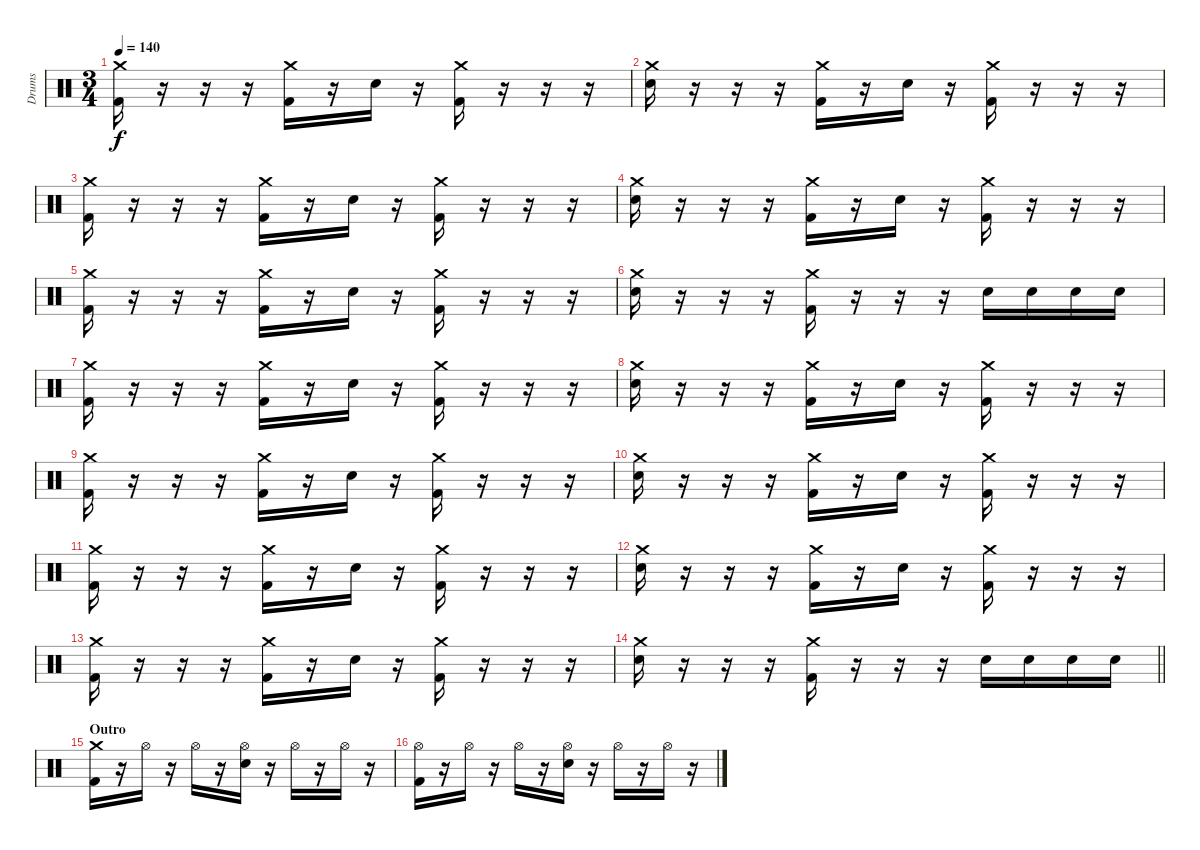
\track ("Drums" "Drums") {instrument percussion}
\staff {score}
\articulation defaults
\ts (3 4)
\tempo 140
\clef neutral
\ks c
("Crash medium (hit)" "Kick (hit) 2").16{dy f} r.16 r.16 r.16 ("Crash medium (hit)" "Kick (hit) 2").16 r.16 "Electric Snare (hit)".16 r.16 ("Crash medium (hit)" "Kick (hit) 2").16 r.16 r.16 r.16 |
("Crash medium (hit)" "Electric Snare (hit)").16 r.16 r.16 r.16 ("Crash medium (hit)" "Kick (hit) 2").16 r.16 "Electric Snare (hit)".16 r.16 ("Crash medium (hit)" "Kick (hit) 2").16 r.16 r.16 r.16 |
("Crash medium (hit)" "Kick (hit) 2").16 r.16 r.16 r.16 ("Crash medium (hit)" "Kick (hit) 2").16 r.16 "Electric Snare (hit)".16 r.16 ("Crash medium (hit)" "Kick (hit) 2").16 r.16 r.16 r.16 |
("Crash medium (hit)" "Electric Snare (hit)").16 r.16 r.16 r.16 ("Crash medium (hit)" "Kick (hit) 2").16 r.16 "Electric Snare (hit)".16 r.16 ("Crash medium (hit)" "Kick (hit) 2").16 r.16 r.16 r.16 |
("Crash medium (hit)" "Kick (hit) 2").16 r.16 r.16 r.16 ("Crash medium (hit)" "Kick (hit) 2").16 r.16 "Electric Snare (hit)".16 r.16 ("Crash medium (hit)" "Kick (hit) 2").16 r.16 r.16 r.16 |
("Crash medium (hit)" "Electric Snare (hit)").16 r.16 r.16 r.16 ("Crash medium (hit)" "Kick (hit) 2").16 r.16 r.16 r.16 "Electric Snare (hit)".16 "Electric Snare (hit)".16 "Electric Snare (hit)".16 "Electric Snare (hit)".16 |
("Crash medium (hit)" "Kick (hit) 2").16 r.16 r.16 r.16 ("Crash medium (hit)" "Kick (hit) 2").16 r.16 "Electric Snare (hit)".16 r.16 ("Crash medium (hit)" "Kick (hit) 2").16 r.16 r.16 r.16 |
("Crash medium (hit)" "Electric Snare (hit)").16 r.16 r.16 r.16 ("Crash medium (hit)" "Kick (hit) 2").16 r.16 "Electric Snare (hit)".16 r.16 ("Crash medium (hit)" "Kick (hit) 2").16 r.16 r.16 r.16 |
("Crash medium (hit)" "Kick (hit) 2").16 r.16 r.16 r.16 ("Crash medium (hit)" "Kick (hit) 2").16 r.16 "Electric Snare (hit)".16 r.16 ("Crash medium (hit)" "Kick (hit) 2").16 r.16 r.16 r.16 |
("Crash medium (hit)" "Electric Snare (hit)").16 r.16 r.16 r.16 ("Crash medium (hit)" "Kick (hit) 2").16 r.16 "Electric Snare (hit)".16 r.16 ("Crash medium (hit)" "Kick (hit) 2").16 r.16 r.16 r.16 |
("Crash medium (hit)" "Kick (hit) 2").16 r.16 r.16 r.16 ("Crash medium (hit)" "Kick (hit) 2").16 r.16 "Electric Snare (hit)".16 r.16 ("Crash medium (hit)" "Kick (hit) 2").16 r.16 r.16 r.16 |
("Crash medium (hit)" "Electric Snare (hit)").16 r.16 r.16 r.16 ("Crash medium (hit)" "Kick (hit) 2").16 r.16 "Electric Snare (hit)".16 r.16 ("Crash medium (hit)" "Kick (hit) 2").16 r.16 r.16 r.16 |
("Crash medium (hit)" "Kick (hit) 2").16 r.16 r.16 r.16 ("Crash medium (hit)" "Kick (hit) 2").16 r.16 "Electric Snare (hit)".16 r.16 ("Crash medium (hit)" "Kick (hit) 2").16 r.16 r.16 r.16 |
\barLineRight lightlight
("Crash medium (hit)" "Electric Snare (hit)").16 r.16 r.16 r.16 ("Crash medium (hit)" "Kick (hit) 2").16 r.16 r.16 r.16 "Electric Snare (hit)".16 "Electric Snare (hit)".16 "Electric Snare (hit)".16 "Electric Snare (hit)".16 |
\section ("" "Outro")
("Crash medium (hit)" "Kick (hit) 2").16 r.16 "Hi-Hat (open)".16 r.16 "Hi-Hat (open)".16 r.16 ("Hi-Hat (open)" "Electric Snare (hit)").16 r.16 "Hi-Hat (open)".16 r.16 "Hi-Hat (open)".16 r.16 |
("Hi-Hat (open)" "Kick (hit) 2").16 r.16 "Hi-Hat (open)".16 r.16 "Hi-Hat (open)".16 r.16 ("Hi-Hat (open)" "Electric Snare (hit)").16 r.16 "Hi-Hat (open)".16 r.16 "Hi-Hat (open)".16 r.16
